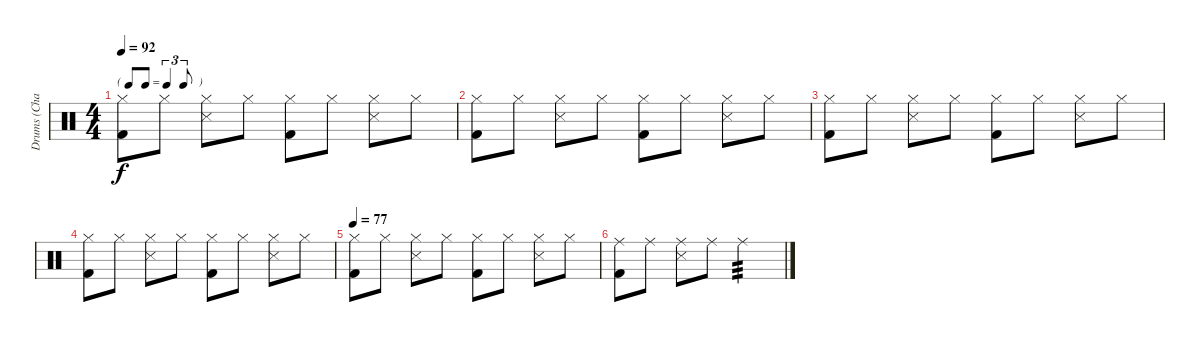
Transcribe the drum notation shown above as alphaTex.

\track ("Drums (Charlie)" "Drums (Cha") {instrument percussion}
\staff {score}
\articulation defaults
\ts (4 4)
\tf triplet8th
\tempo 92
\clef neutral
\ks c
("Hi-Hat (closed)" "Kick (hit) 2").8{dy f} "Hi-Hat (closed)".8 ("Hi-Hat (closed)" "Snare (side stick) 3").8 "Hi-Hat (closed)".8 ("Hi-Hat (closed)" "Kick (hit) 2").8 "Hi-Hat (closed)".8 ("Hi-Hat (closed)" "Snare (side stick) 3").8 "Hi-Hat (closed)".8 |
("Hi-Hat (closed)" "Kick (hit) 2").8 "Hi-Hat (closed)".8 ("Hi-Hat (closed)" "Snare (side stick) 3").8 "Hi-Hat (closed)".8 ("Hi-Hat (closed)" "Kick (hit) 2").8 "Hi-Hat (closed)".8 ("Hi-Hat (closed)" "Snare (side stick) 3").8 "Hi-Hat (closed)".8 |
("Hi-Hat (closed)" "Kick (hit) 2").8 "Hi-Hat (closed)".8 ("Hi-Hat (closed)" "Snare (side stick) 3").8 "Hi-Hat (closed)".8 ("Hi-Hat (closed)" "Kick (hit) 2").8 "Hi-Hat (closed)".8 ("Hi-Hat (closed)" "Snare (side stick) 3").8 "Hi-Hat (closed)".8 |
("Hi-Hat (closed)" "Kick (hit) 2").8 "Hi-Hat (closed)".8 ("Hi-Hat (closed)" "Snare (side stick) 3").8 "Hi-Hat (closed)".8 ("Hi-Hat (closed)" "Kick (hit) 2").8 "Hi-Hat (closed)".8 ("Hi-Hat (closed)" "Snare (side stick) 3").8 "Hi-Hat (closed)".8 |
\tempo 77
("Hi-Hat (closed)" "Kick (hit) 2").8 "Hi-Hat (closed)".8 ("Hi-Hat (closed)" "Snare (side stick) 3").8 "Hi-Hat (closed)".8 ("Hi-Hat (closed)" "Kick (hit) 2").8 "Hi-Hat (closed)".8 ("Hi-Hat (closed)" "Snare (side stick) 3").8 "Hi-Hat (closed)".8 |
("Ride (middle)" "Kick (hit) 2").8{volume 0} "Ride (middle)".8 ("Ride (middle)" "Snare (side stick) 3").8 "Ride (middle)".8 "Ride (middle)".2{tp 3}
